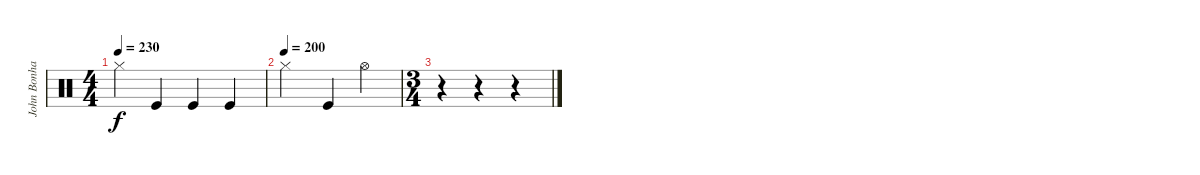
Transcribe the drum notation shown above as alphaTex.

\track ("John Bonham" "John Bonha") {instrument percussion}
\staff {score}
\articulation defaults
\ts (4 4)
\tempo 230
\clef neutral
\ks c "Hi-Hat (closed)".4{dy f} "Kick (hit)".4 "Kick (hit)".4 "Kick (hit)".4
|
\tempo (200)
"Hi-Hat (closed)".2 "Kick (hit)".4 "Hi-Hat (open)".4 |
\ts (3 4)
r.4 r.4 r.4
